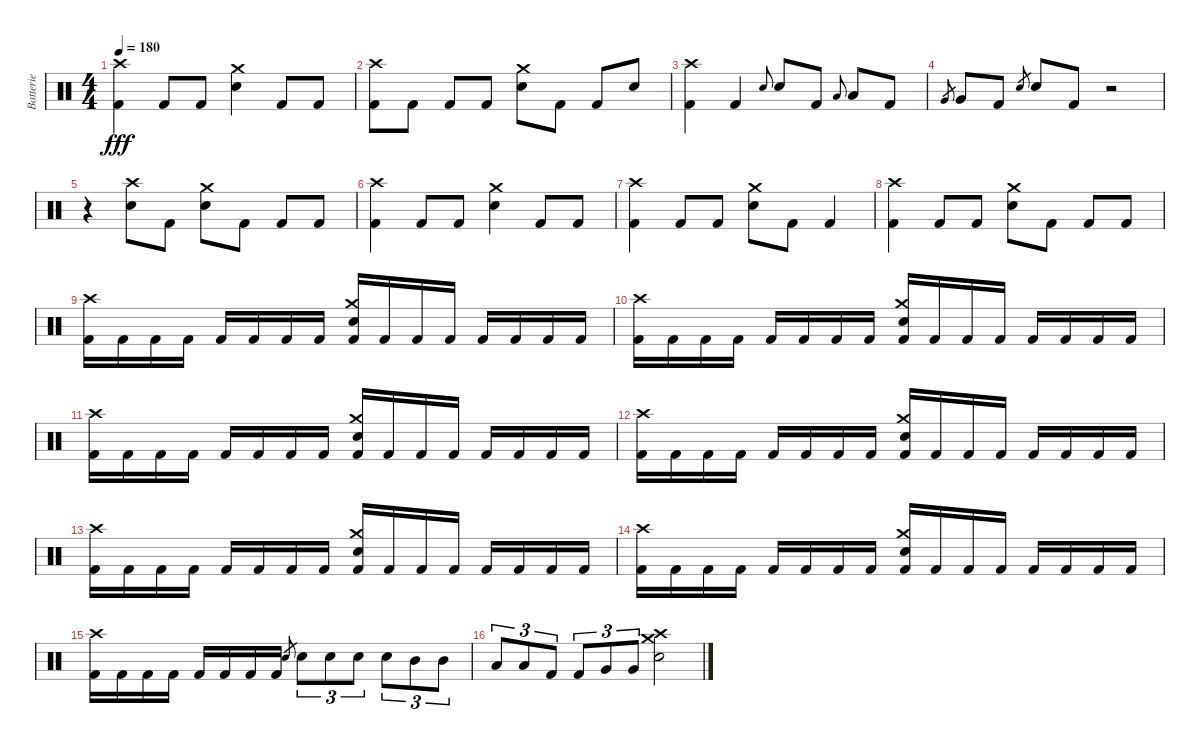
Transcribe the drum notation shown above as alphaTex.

\track ("Batterie" "Batterie") {instrument percussion}
\staff {score}
\articulation defaults
\ts (4 4)
\tempo 180
\clef neutral
\ks c
("Crash high (hit)" "Kick (hit) 2").4{dy fff} "Kick (hit) 2".8 "Kick (hit) 2".8 ("Crash medium (hit)" "Electric Snare (hit)").4 "Kick (hit) 2".8 "Kick (hit) 2".8 |
("Crash high (hit)" "Kick (hit) 2").8 "Kick (hit) 2".8 "Kick (hit) 2".8 "Kick (hit) 2".8 ("Crash medium (hit)" "Electric Snare (hit)").8 "Kick (hit) 2".8 "Kick (hit) 2".8 "Electric Snare (hit)".8 |
("Crash high (hit)" "Kick (hit) 2").4 "Kick (hit) 2".4 "Electric Snare (hit)".8{gr onbeat} "Electric Snare (hit)".8 "Kick (hit) 2".8 "Low Tom (hit)".8{gr onbeat} "Low Tom (hit)".8 "Kick (hit) 2".8 |
"Very Low Tom (hit)".8{gr} "Very Low Tom (hit)".8 "Kick (hit) 2".8 "Electric Snare (hit)".8{gr} "Electric Snare (hit)".8 "Kick (hit) 2".8 r.2 |
r.4 ("Crash high (hit)" "Electric Snare (hit)").8 "Kick (hit) 2".8 ("Crash medium (hit)" "Electric Snare (hit)").8 "Kick (hit) 2".8 "Kick (hit) 2".8 "Kick (hit) 2".8 |
("Crash high (hit)" "Kick (hit) 2").4 "Kick (hit) 2".8 "Kick (hit) 2".8 ("Crash medium (hit)" "Electric Snare (hit)").4 "Kick (hit) 2".8 "Kick (hit) 2".8 |
("Crash high (hit)" "Kick (hit) 2").4 "Kick (hit) 2".8 "Kick (hit) 2".8 ("Crash medium (hit)" "Electric Snare (hit)").8 "Kick (hit) 2".8 "Kick (hit) 2".4 |
("Crash high (hit)" "Kick (hit) 2").4 "Kick (hit) 2".8 "Kick (hit) 2".8 ("Crash medium (hit)" "Electric Snare (hit)").8 "Kick (hit) 2".8 "Kick (hit) 2".8 "Kick (hit) 2".8 |
("Crash high (hit)" "Kick (hit) 2").16 "Kick (hit) 2".16 "Kick (hit) 2".16 "Kick (hit) 2".16 "Kick (hit) 2".16 "Kick (hit) 2".16 "Kick (hit) 2".16 "Kick (hit) 2".16 ("Crash medium (hit)" "Electric Snare (hit)" "Kick (hit) 2").16 "Kick (hit) 2".16 "Kick (hit) 2".16 "Kick (hit) 2".16 "Kick (hit) 2".16 "Kick (hit) 2".16 "Kick (hit) 2".16 "Kick (hit) 2".16 |
("Crash high (hit)" "Kick (hit) 2").16 "Kick (hit) 2".16 "Kick (hit) 2".16 "Kick (hit) 2".16 "Kick (hit) 2".16 "Kick (hit) 2".16 "Kick (hit) 2".16 "Kick (hit) 2".16 ("Crash medium (hit)" "Electric Snare (hit)" "Kick (hit) 2").16 "Kick (hit) 2".16 "Kick (hit) 2".16 "Kick (hit) 2".16 "Kick (hit) 2".16 "Kick (hit) 2".16 "Kick (hit) 2".16 "Kick (hit) 2".16 |
("Crash high (hit)" "Kick (hit) 2").16 "Kick (hit) 2".16 "Kick (hit) 2".16 "Kick (hit) 2".16 "Kick (hit) 2".16 "Kick (hit) 2".16 "Kick (hit) 2".16 "Kick (hit) 2".16 ("Crash medium (hit)" "Electric Snare (hit)" "Kick (hit) 2").16 "Kick (hit) 2".16 "Kick (hit) 2".16 "Kick (hit) 2".16 "Kick (hit) 2".16 "Kick (hit) 2".16 "Kick (hit) 2".16 "Kick (hit) 2".16 |
("Crash high (hit)" "Kick (hit) 2").16 "Kick (hit) 2".16 "Kick (hit) 2".16 "Kick (hit) 2".16 "Kick (hit) 2".16 "Kick (hit) 2".16 "Kick (hit) 2".16 "Kick (hit) 2".16 ("Crash medium (hit)" "Electric Snare (hit)" "Kick (hit) 2").16 "Kick (hit) 2".16 "Kick (hit) 2".16 "Kick (hit) 2".16 "Kick (hit) 2".16 "Kick (hit) 2".16 "Kick (hit) 2".16 "Kick (hit) 2".16 |
("Crash high (hit)" "Kick (hit) 2").16 "Kick (hit) 2".16 "Kick (hit) 2".16 "Kick (hit) 2".16 "Kick (hit) 2".16 "Kick (hit) 2".16 "Kick (hit) 2".16 "Kick (hit) 2".16 ("Crash medium (hit)" "Electric Snare (hit)" "Kick (hit) 2").16 "Kick (hit) 2".16 "Kick (hit) 2".16 "Kick (hit) 2".16 "Kick (hit) 2".16 "Kick (hit) 2".16 "Kick (hit) 2".16 "Kick (hit) 2".16 |
("Crash high (hit)" "Kick (hit) 2").16 "Kick (hit) 2".16 "Kick (hit) 2".16 "Kick (hit) 2".16 "Kick (hit) 2".16 "Kick (hit) 2".16 "Kick (hit) 2".16 "Kick (hit) 2".16 ("Crash medium (hit)" "Electric Snare (hit)" "Kick (hit) 2").16 "Kick (hit) 2".16 "Kick (hit) 2".16 "Kick (hit) 2".16 "Kick (hit) 2".16 "Kick (hit) 2".16 "Kick (hit) 2".16 "Kick (hit) 2".16 |
("Crash high (hit)" "Kick (hit) 2").16 "Kick (hit) 2".16 "Kick (hit) 2".16 "Kick (hit) 2".16 "Kick (hit) 2".16 "Kick (hit) 2".16 "Kick (hit) 2".16 "Kick (hit) 2".16 "Electric Snare (hit)".8{gr} "Electric Snare (hit)".8{tu (3 2)} "Electric Snare (hit)".8{tu (3 2)} "Electric Snare (hit)".8{tu (3 2)} "Electric Snare (hit)".8{tu (3 2)} "Mid Tom (hit)".8{tu (3 2)} "Mid Tom (hit)".8{tu (3 2)} |
"Low Tom (hit)".8{tu (3 2)} "Low Tom (hit)".8{tu (3 2)} "Kick (hit) 2".8{tu (3 2)} "Kick (hit) 2".8{tu (3 2)} "Very Low Tom (hit)".8{tu (3 2)} "Very Low Tom (hit)".8{tu (3 2)} ("Crash high (hit)" "Crash medium (hit)" "Electric Snare (hit)").2
